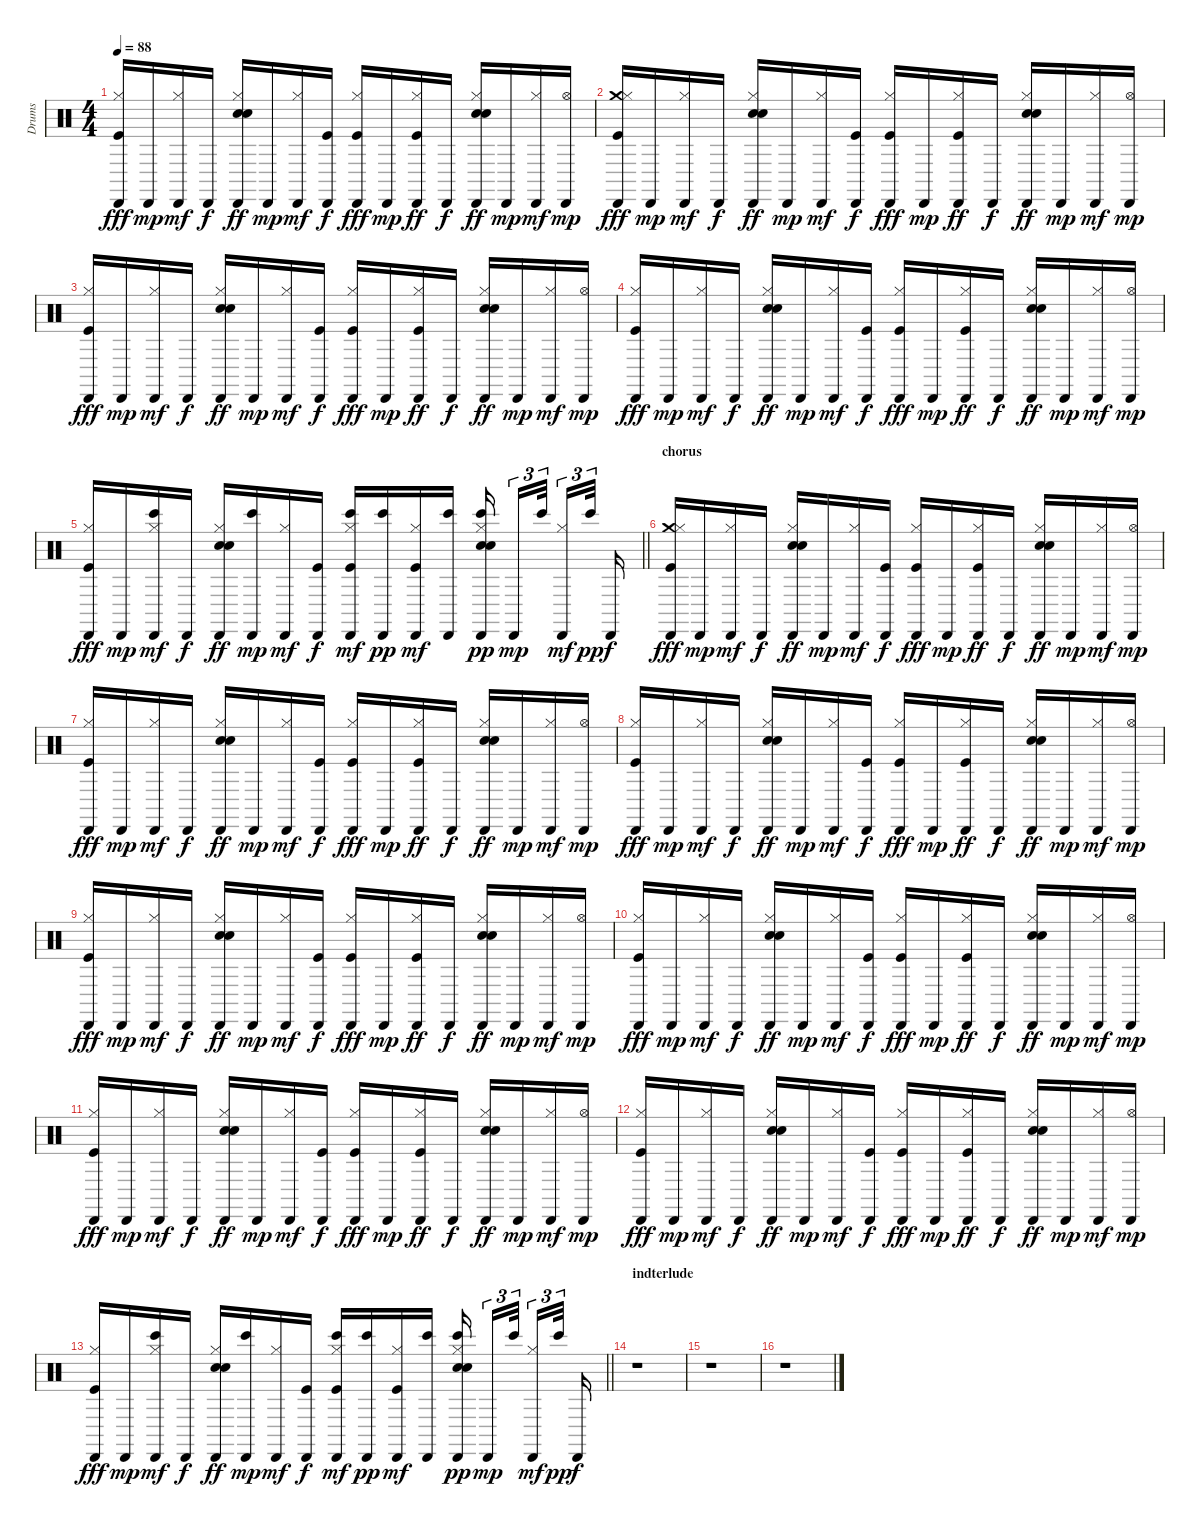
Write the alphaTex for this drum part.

\track ("Drums" "Drums") {instrument percussion}
\staff {score}
\articulation defaults
\ts (4 4)
\tempo 88
\clef neutral
\ks c
("Cabasa (hit)" "Hi-Hat (closed)" "Kick (hit)").16{dy fff} "Cabasa (hit)".16{dy mp} ("Cabasa (hit)" "Hi-Hat (closed)").16{dy mf} "Cabasa (hit)".16{dy f} ("Cabasa (hit)" "Electric Snare (hit)" "Snare (hit) 2" "Hi-Hat (closed)").16{dy ff} "Cabasa (hit)".16{dy mp} ("Cabasa (hit)" "Hi-Hat (closed)").16{dy mf} ("Cabasa (hit)" "Kick (hit)").16{dy f} ("Cabasa (hit)" "Hi-Hat (closed)" "Kick (hit)").16{dy fff} "Cabasa (hit)".16{dy mp} ("Cabasa (hit)" "Hi-Hat (closed)" "Kick (hit)").16{dy ff} "Cabasa (hit)".16{dy f} ("Cabasa (hit)" "Electric Snare (hit)" "Snare (hit) 2" "Hi-Hat (closed)").16{dy ff} "Cabasa (hit)".16{dy mp} ("Cabasa (hit)" "Hi-Hat (closed)").16{dy mf} ("Cabasa (hit)" "Hi-Hat (open)").16{dy mp} |
("Cabasa (hit)" "Crash medium (hit)" "Hi-Hat (closed)" "Kick (hit)").16{dy fff} "Cabasa (hit)".16{dy mp} ("Cabasa (hit)" "Hi-Hat (closed)").16{dy mf} "Cabasa (hit)".16{dy f} ("Cabasa (hit)" "Electric Snare (hit)" "Snare (hit) 2" "Hi-Hat (closed)").16{dy ff} "Cabasa (hit)".16{dy mp} ("Cabasa (hit)" "Hi-Hat (closed)").16{dy mf} ("Cabasa (hit)" "Kick (hit)").16{dy f} ("Cabasa (hit)" "Hi-Hat (closed)" "Kick (hit)").16{dy fff} "Cabasa (hit)".16{dy mp} ("Cabasa (hit)" "Hi-Hat (closed)" "Kick (hit)").16{dy ff} "Cabasa (hit)".16{dy f} ("Cabasa (hit)" "Electric Snare (hit)" "Snare (hit) 2" "Hi-Hat (closed)").16{dy ff} "Cabasa (hit)".16{dy mp} ("Cabasa (hit)" "Hi-Hat (closed)").16{dy mf} ("Cabasa (hit)" "Hi-Hat (open)").16{dy mp} |
("Cabasa (hit)" "Hi-Hat (closed)" "Kick (hit)").16{dy fff} "Cabasa (hit)".16{dy mp} ("Cabasa (hit)" "Hi-Hat (closed)").16{dy mf} "Cabasa (hit)".16{dy f} ("Cabasa (hit)" "Electric Snare (hit)" "Snare (hit) 2" "Hi-Hat (closed)").16{dy ff} "Cabasa (hit)".16{dy mp} ("Cabasa (hit)" "Hi-Hat (closed)").16{dy mf} ("Cabasa (hit)" "Kick (hit)").16{dy f} ("Cabasa (hit)" "Hi-Hat (closed)" "Kick (hit)").16{dy fff} "Cabasa (hit)".16{dy mp} ("Cabasa (hit)" "Hi-Hat (closed)" "Kick (hit)").16{dy ff} "Cabasa (hit)".16{dy f} ("Cabasa (hit)" "Electric Snare (hit)" "Snare (hit) 2" "Hi-Hat (closed)").16{dy ff} "Cabasa (hit)".16{dy mp} ("Cabasa (hit)" "Hi-Hat (closed)").16{dy mf} ("Cabasa (hit)" "Hi-Hat (open)").16{dy mp} |
("Cabasa (hit)" "Hi-Hat (closed)" "Kick (hit)").16{dy fff} "Cabasa (hit)".16{dy mp} ("Cabasa (hit)" "Hi-Hat (closed)").16{dy mf} "Cabasa (hit)".16{dy f} ("Cabasa (hit)" "Electric Snare (hit)" "Snare (hit) 2" "Hi-Hat (closed)").16{dy ff} "Cabasa (hit)".16{dy mp} ("Cabasa (hit)" "Hi-Hat (closed)").16{dy mf} ("Cabasa (hit)" "Kick (hit)").16{dy f} ("Cabasa (hit)" "Hi-Hat (closed)" "Kick (hit)").16{dy fff} "Cabasa (hit)".16{dy mp} ("Cabasa (hit)" "Hi-Hat (closed)" "Kick (hit)").16{dy ff} "Cabasa (hit)".16{dy f} ("Cabasa (hit)" "Electric Snare (hit)" "Snare (hit) 2" "Hi-Hat (closed)").16{dy ff} "Cabasa (hit)".16{dy mp} ("Cabasa (hit)" "Hi-Hat (closed)").16{dy mf} ("Cabasa (hit)" "Hi-Hat (open)").16{dy mp} |
\barLineRight lightlight
("Kick (hit)" "Cabasa (hit)" "Hi-Hat (closed)").16{dy fff} "Cabasa (hit)".16{dy mp} ("Bongo High (hit)" "Cabasa (hit)" "Hi-Hat (closed)").16{dy mf} "Cabasa (hit)".16{dy f} ("Electric Snare (hit)" "Cabasa (hit)" "Snare (hit) 2" "Hi-Hat (closed)").16{dy ff} ("Cabasa (hit)" "Bongo High (hit)").16{dy mp} ("Cabasa (hit)" "Hi-Hat (closed)").16{dy mf} ("Kick (hit)" "Cabasa (hit)").16{dy f} ("Kick (hit)" "Cabasa (hit)" "Hi-Hat (closed)" "Bongo High (hit)").16{dy mf} ("Cabasa (hit)" "Bongo High (hit)").16{dy pp} ("Kick (hit)" "Cabasa (hit)" "Hi-Hat (closed)").16{dy mf} ("Cabasa (hit)" "Bongo High (hit)").16 ("Electric Snare (hit)" "Snare (hit) 2" "Cabasa (hit)" "Hi-Hat (closed)" "Bongo High (hit)").16{dy pp} "Cabasa (hit)".16{tu (3 2) dy mp} "Bongo High (hit)".32{tu (3 2)} ("Hi-Hat (closed)" "Cabasa (hit)").16{tu (3 2) dy mf} "Bongo High (hit)".32{tu (3 2) dy pp} "Cabasa (hit)".16{dy f} |
\section ("" "chorus")
("Cabasa (hit)" "Crash medium (hit)" "Hi-Hat (closed)" "Kick (hit)").16{dy fff} "Cabasa (hit)".16{dy mp} ("Cabasa (hit)" "Hi-Hat (closed)").16{dy mf} "Cabasa (hit)".16{dy f} ("Cabasa (hit)" "Electric Snare (hit)" "Snare (hit) 2" "Hi-Hat (closed)").16{dy ff} "Cabasa (hit)".16{dy mp} ("Cabasa (hit)" "Hi-Hat (closed)").16{dy mf} ("Cabasa (hit)" "Kick (hit)").16{dy f} ("Cabasa (hit)" "Hi-Hat (closed)" "Kick (hit)").16{dy fff} "Cabasa (hit)".16{dy mp} ("Cabasa (hit)" "Hi-Hat (closed)" "Kick (hit)").16{dy ff} "Cabasa (hit)".16{dy f} ("Cabasa (hit)" "Electric Snare (hit)" "Snare (hit) 2" "Hi-Hat (closed)").16{dy ff} "Cabasa (hit)".16{dy mp} ("Cabasa (hit)" "Hi-Hat (closed)").16{dy mf} ("Cabasa (hit)" "Hi-Hat (open)").16{dy mp} |
("Cabasa (hit)" "Hi-Hat (closed)" "Kick (hit)").16{dy fff} "Cabasa (hit)".16{dy mp} ("Cabasa (hit)" "Hi-Hat (closed)").16{dy mf} "Cabasa (hit)".16{dy f} ("Cabasa (hit)" "Electric Snare (hit)" "Snare (hit) 2" "Hi-Hat (closed)").16{dy ff} "Cabasa (hit)".16{dy mp} ("Cabasa (hit)" "Hi-Hat (closed)").16{dy mf} ("Cabasa (hit)" "Kick (hit)").16{dy f} ("Cabasa (hit)" "Hi-Hat (closed)" "Kick (hit)").16{dy fff} "Cabasa (hit)".16{dy mp} ("Cabasa (hit)" "Hi-Hat (closed)" "Kick (hit)").16{dy ff} "Cabasa (hit)".16{dy f} ("Cabasa (hit)" "Electric Snare (hit)" "Snare (hit) 2" "Hi-Hat (closed)").16{dy ff} "Cabasa (hit)".16{dy mp} ("Cabasa (hit)" "Hi-Hat (closed)").16{dy mf} ("Cabasa (hit)" "Hi-Hat (open)").16{dy mp} |
("Cabasa (hit)" "Hi-Hat (closed)" "Kick (hit)").16{dy fff} "Cabasa (hit)".16{dy mp} ("Cabasa (hit)" "Hi-Hat (closed)").16{dy mf} "Cabasa (hit)".16{dy f} ("Cabasa (hit)" "Electric Snare (hit)" "Snare (hit) 2" "Hi-Hat (closed)").16{dy ff} "Cabasa (hit)".16{dy mp} ("Cabasa (hit)" "Hi-Hat (closed)").16{dy mf} ("Cabasa (hit)" "Kick (hit)").16{dy f} ("Cabasa (hit)" "Hi-Hat (closed)" "Kick (hit)").16{dy fff} "Cabasa (hit)".16{dy mp} ("Cabasa (hit)" "Hi-Hat (closed)" "Kick (hit)").16{dy ff} "Cabasa (hit)".16{dy f} ("Cabasa (hit)" "Electric Snare (hit)" "Snare (hit) 2" "Hi-Hat (closed)").16{dy ff} "Cabasa (hit)".16{dy mp} ("Cabasa (hit)" "Hi-Hat (closed)").16{dy mf} ("Cabasa (hit)" "Hi-Hat (open)").16{dy mp} |
("Cabasa (hit)" "Hi-Hat (closed)" "Kick (hit)").16{dy fff} "Cabasa (hit)".16{dy mp} ("Cabasa (hit)" "Hi-Hat (closed)").16{dy mf} "Cabasa (hit)".16{dy f} ("Cabasa (hit)" "Electric Snare (hit)" "Snare (hit) 2" "Hi-Hat (closed)").16{dy ff} "Cabasa (hit)".16{dy mp} ("Cabasa (hit)" "Hi-Hat (closed)").16{dy mf} ("Cabasa (hit)" "Kick (hit)").16{dy f} ("Cabasa (hit)" "Hi-Hat (closed)" "Kick (hit)").16{dy fff} "Cabasa (hit)".16{dy mp} ("Cabasa (hit)" "Hi-Hat (closed)" "Kick (hit)").16{dy ff} "Cabasa (hit)".16{dy f} ("Cabasa (hit)" "Electric Snare (hit)" "Snare (hit) 2" "Hi-Hat (closed)").16{dy ff} "Cabasa (hit)".16{dy mp} ("Cabasa (hit)" "Hi-Hat (closed)").16{dy mf} ("Cabasa (hit)" "Hi-Hat (open)").16{dy mp} |
("Cabasa (hit)" "Hi-Hat (closed)" "Kick (hit)").16{dy fff} "Cabasa (hit)".16{dy mp} ("Cabasa (hit)" "Hi-Hat (closed)").16{dy mf} "Cabasa (hit)".16{dy f} ("Cabasa (hit)" "Electric Snare (hit)" "Snare (hit) 2" "Hi-Hat (closed)").16{dy ff} "Cabasa (hit)".16{dy mp} ("Cabasa (hit)" "Hi-Hat (closed)").16{dy mf} ("Cabasa (hit)" "Kick (hit)").16{dy f} ("Cabasa (hit)" "Hi-Hat (closed)" "Kick (hit)").16{dy fff} "Cabasa (hit)".16{dy mp} ("Cabasa (hit)" "Hi-Hat (closed)" "Kick (hit)").16{dy ff} "Cabasa (hit)".16{dy f} ("Cabasa (hit)" "Electric Snare (hit)" "Snare (hit) 2" "Hi-Hat (closed)").16{dy ff} "Cabasa (hit)".16{dy mp} ("Cabasa (hit)" "Hi-Hat (closed)").16{dy mf} ("Cabasa (hit)" "Hi-Hat (open)").16{dy mp} |
("Cabasa (hit)" "Hi-Hat (closed)" "Kick (hit)").16{dy fff} "Cabasa (hit)".16{dy mp} ("Cabasa (hit)" "Hi-Hat (closed)").16{dy mf} "Cabasa (hit)".16{dy f} ("Cabasa (hit)" "Electric Snare (hit)" "Snare (hit) 2" "Hi-Hat (closed)").16{dy ff} "Cabasa (hit)".16{dy mp} ("Cabasa (hit)" "Hi-Hat (closed)").16{dy mf} ("Cabasa (hit)" "Kick (hit)").16{dy f} ("Cabasa (hit)" "Hi-Hat (closed)" "Kick (hit)").16{dy fff} "Cabasa (hit)".16{dy mp} ("Cabasa (hit)" "Hi-Hat (closed)" "Kick (hit)").16{dy ff} "Cabasa (hit)".16{dy f} ("Cabasa (hit)" "Electric Snare (hit)" "Snare (hit) 2" "Hi-Hat (closed)").16{dy ff} "Cabasa (hit)".16{dy mp} ("Cabasa (hit)" "Hi-Hat (closed)").16{dy mf} ("Cabasa (hit)" "Hi-Hat (open)").16{dy mp} |
("Cabasa (hit)" "Hi-Hat (closed)" "Kick (hit)").16{dy fff} "Cabasa (hit)".16{dy mp} ("Cabasa (hit)" "Hi-Hat (closed)").16{dy mf} "Cabasa (hit)".16{dy f} ("Cabasa (hit)" "Electric Snare (hit)" "Snare (hit) 2" "Hi-Hat (closed)").16{dy ff} "Cabasa (hit)".16{dy mp} ("Cabasa (hit)" "Hi-Hat (closed)").16{dy mf} ("Cabasa (hit)" "Kick (hit)").16{dy f} ("Cabasa (hit)" "Hi-Hat (closed)" "Kick (hit)").16{dy fff} "Cabasa (hit)".16{dy mp} ("Cabasa (hit)" "Hi-Hat (closed)" "Kick (hit)").16{dy ff} "Cabasa (hit)".16{dy f} ("Cabasa (hit)" "Electric Snare (hit)" "Snare (hit) 2" "Hi-Hat (closed)").16{dy ff} "Cabasa (hit)".16{dy mp} ("Cabasa (hit)" "Hi-Hat (closed)").16{dy mf} ("Cabasa (hit)" "Hi-Hat (open)").16{dy mp} |
\barLineRight lightlight
("Kick (hit)" "Cabasa (hit)" "Hi-Hat (closed)").16{dy fff} "Cabasa (hit)".16{dy mp} ("Bongo High (hit)" "Cabasa (hit)" "Hi-Hat (closed)").16{dy mf} "Cabasa (hit)".16{dy f} ("Electric Snare (hit)" "Cabasa (hit)" "Snare (hit) 2" "Hi-Hat (closed)").16{dy ff} ("Cabasa (hit)" "Bongo High (hit)").16{dy mp} ("Cabasa (hit)" "Hi-Hat (closed)").16{dy mf} ("Kick (hit)" "Cabasa (hit)").16{dy f} ("Kick (hit)" "Cabasa (hit)" "Hi-Hat (closed)" "Bongo High (hit)").16{dy mf} ("Cabasa (hit)" "Bongo High (hit)").16{dy pp} ("Kick (hit)" "Cabasa (hit)" "Hi-Hat (closed)").16{dy mf} ("Cabasa (hit)" "Bongo High (hit)").16 ("Electric Snare (hit)" "Snare (hit) 2" "Cabasa (hit)" "Hi-Hat (closed)" "Bongo High (hit)").16{dy pp} "Cabasa (hit)".16{tu (3 2) dy mp} "Bongo High (hit)".32{tu (3 2)} ("Hi-Hat (closed)" "Cabasa (hit)").16{tu (3 2) dy mf} "Bongo High (hit)".32{tu (3 2) dy pp} "Cabasa (hit)".16{dy f} |
\section ("" "indterlude")
r.1 |
r.1 |
r.1
